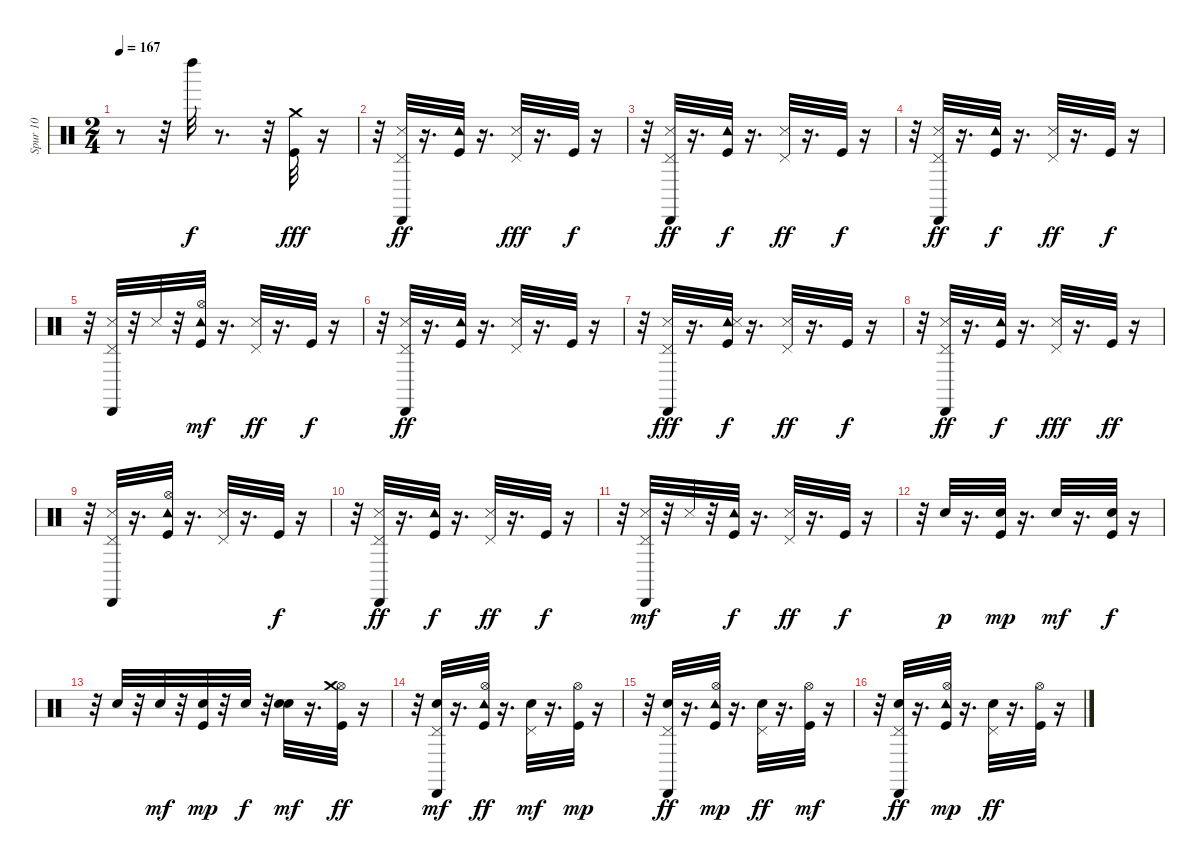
\track ("Spur 10" "Spur 10") {instrument percussion}
\staff {score}
\articulation defaults
\ts (2 4)
\tempo 167
\clef neutral
\ks c
r.8{dy mf} r.32 "Left Maraca (hit)".32{dy f} r.8{d} r.32 ("Crash medium (hit)" "Kick (hit)").32{dy fff} r.16 |
r.32 ("Cabasa (hit)" "Pedal Hi-Hat (hit)" "Snare (side stick) 3").32{dy ff} r.16{d} ("Tambourine (hit)" "Kick (hit)").32 r.16{d} ("Snare (side stick) 3" "Pedal Hi-Hat (hit)").32{dy fff} r.16{d} "Kick (hit)".32{dy f} r.16 |
r.32 ("Snare (side stick) 3" "Pedal Hi-Hat (hit)" "Cabasa (hit)").32{dy ff} r.16{d} ("Tambourine (hit)" "Kick (hit)").32{dy f} r.16{d} ("Snare (side stick) 3" "Pedal Hi-Hat (hit)").32{dy ff} r.16{d} "Kick (hit)".32{dy f} r.16 |
r.32 ("Cabasa (hit)" "Snare (side stick) 3" "Pedal Hi-Hat (hit)").32{dy ff} r.16{d} ("Kick (hit)" "Tambourine (hit)").32{dy f} r.16{d} ("Pedal Hi-Hat (hit)" "Snare (side stick) 3").32{dy ff} r.16{d} "Kick (hit)".32{dy f} r.16 |
r.32 ("Cabasa (hit)" "Snare (side stick) 3" "Pedal Hi-Hat (hit)").32 r.32 "Snare (side stick) 3".32 r.32 ("Hi-Hat (open)" "Tambourine (hit)" "Kick (hit)").32{dy mf} r.16{d} ("Snare (side stick) 3" "Pedal Hi-Hat (hit)").32{dy ff} r.16{d} "Kick (hit)".32{dy f} r.16 |
r.32 ("Pedal Hi-Hat (hit)" "Snare (side stick) 3" "Cabasa (hit)").32{dy ff} r.16{d} ("Kick (hit)" "Tambourine (hit)").32 r.16{d} ("Snare (side stick) 3" "Pedal Hi-Hat (hit)").32 r.16{d} "Kick (hit)".32 r.16 |
r.32 ("Pedal Hi-Hat (hit)" "Snare (side stick) 3" "Cabasa (hit)").32{dy fff} r.16{d} ("Tambourine (hit)" "Snare (side stick) 3" "Kick (hit)").32{dy f} r.16{d} ("Pedal Hi-Hat (hit)" "Snare (side stick) 3").32{dy ff} r.16{d} "Kick (hit)".32{dy f} r.16 |
r.32 ("Pedal Hi-Hat (hit)" "Snare (side stick) 3" "Cabasa (hit)").32{dy ff} r.16{d} ("Tambourine (hit)" "Kick (hit)").32{dy f} r.16{d} ("Pedal Hi-Hat (hit)" "Snare (side stick) 3").32{dy fff} r.16{d} "Kick (hit)".32{dy ff} r.16 |
r.32 ("Pedal Hi-Hat (hit)" "Snare (side stick) 3" "Cabasa (hit)").32 r.16{d} ("Kick (hit)" "Tambourine (hit)" "Hi-Hat (open)").32 r.16{d} ("Snare (side stick) 3" "Pedal Hi-Hat (hit)").32 r.16{d} "Kick (hit)".32{dy f} r.16 |
r.32 ("Pedal Hi-Hat (hit)" "Snare (side stick) 3" "Cabasa (hit)").32{dy ff} r.16{d} ("Tambourine (hit)" "Kick (hit)").32{dy f} r.16{d} ("Snare (side stick) 3" "Pedal Hi-Hat (hit)").32{dy ff} r.16{d} "Kick (hit)".32{dy f} r.16 |
r.32 ("Pedal Hi-Hat (hit)" "Cabasa (hit)" "Snare (side stick) 3").32{dy mf} r.32 "Snare (side stick) 3".32 r.32 ("Tambourine (hit)" "Kick (hit)").32{dy f} r.16{d} ("Snare (side stick) 3" "Pedal Hi-Hat (hit)").32{dy ff} r.16{d} "Kick (hit)".32{dy f} r.16 |
r.32 "Snare (hit) 2".32{dy p} r.16{d} ("Kick (hit)" "Snare (hit) 2").32{dy mp} r.16{d} "Snare (hit) 2".32{dy mf} r.16{d} ("Kick (hit)" "Snare (hit) 2").32{dy f} r.16 |
r.32 "Snare (hit) 2".32 r.32 "Snare (hit) 2".32{dy mf} r.32 ("Kick (hit)" "Snare (hit) 2").32{dy mp} r.32 "Snare (hit) 2".32{dy f} r.32 ("Electric Snare (hit)" "Snare (hit) 2").32{dy mf} r.16{d} ("Hi-Hat (open)" "Crash medium (hit)" "Kick (hit)").32{dy ff} r.16 |
r.32 ("Cabasa (hit)" "Snare (hit) 2" "Pedal Hi-Hat (hit)").32{dy mf} r.16{d} ("Hi-Hat (open)" "Kick (hit)" "Tambourine (hit)").32{dy ff} r.16{d} ("Snare (hit) 2" "Pedal Hi-Hat (hit)").32{dy mf} r.16{d} ("Kick (hit)" "Hi-Hat (open)").32{dy mp} r.16 |
r.32 ("Pedal Hi-Hat (hit)" "Snare (hit) 2" "Cabasa (hit)").32{dy ff} r.16{d} ("Kick (hit)" "Hi-Hat (open)" "Tambourine (hit)").32{dy mp} r.16{d} ("Snare (hit) 2" "Pedal Hi-Hat (hit)").32{dy ff} r.16{d} ("Kick (hit)" "Hi-Hat (open)").32{dy mf} r.16 |
r.32 ("Pedal Hi-Hat (hit)" "Snare (hit) 2" "Cabasa (hit)").32{dy ff} r.16{d} ("Hi-Hat (open)" "Kick (hit)" "Tambourine (hit)").32{dy mp} r.16{d} ("Pedal Hi-Hat (hit)" "Snare (hit) 2").32{dy ff} r.16{d} ("Hi-Hat (open)" "Kick (hit)").32 r.16
